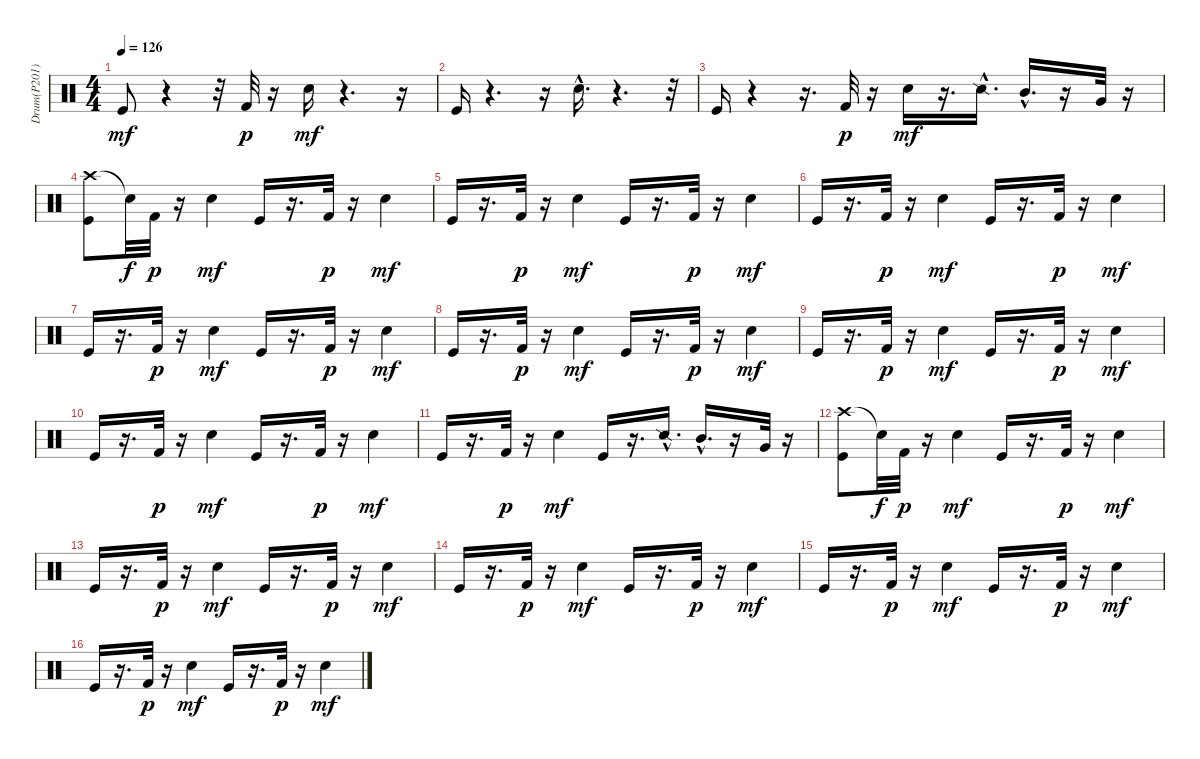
\track ("Drum(P201)" "Drum(P201)") {instrument percussion}
\staff {score}
\articulation defaults
\ts (4 4)
\tempo 126
\clef neutral
\ks c "Kick (hit)".8{dy mf}
r.4 r.32 "Kick (hit) 2".32{dy p} r.16 "Electric Snare (hit)".16{dy mf} r.4{d} r.16 |
"Kick (hit)".16 r.4{d} r.16 "Electric Snare (hit)"{hac}.16{d} r.4{d} r.32 |
"Kick (hit)".16 r.4 r.16{d} "Kick (hit) 2".32{dy p} r.16 "Electric Snare (hit)".16{dy mf} r.16{d} "Snare (side stick) 2"{hac}.16{d} "Mid Tom (hit)"{hac}.16{d} r.16 "Very Low Tom (hit)".32 r.16 |
("Crash high (hit)" "Kick (hit)").8 "Snare (hit)"{t}.32{dy f} "Kick (hit) 2".32{dy p} r.16 "Snare (hit) 2".4{dy mf} "Kick (hit)".16 r.16{d} "Kick (hit) 2".32{dy p} r.16 "Snare (hit) 2".4{dy mf} |
"Kick (hit)".16 r.16{d} "Kick (hit) 2".32{dy p} r.16 "Snare (hit) 2".4{dy mf} "Kick (hit)".16 r.16{d} "Kick (hit) 2".32{dy p} r.16 "Snare (hit) 2".4{dy mf} |
"Kick (hit)".16 r.16{d} "Kick (hit) 2".32{dy p} r.16 "Snare (hit) 2".4{dy mf} "Kick (hit)".16 r.16{d} "Kick (hit) 2".32{dy p} r.16 "Snare (hit) 2".4{dy mf} |
"Kick (hit)".16 r.16{d} "Kick (hit) 2".32{dy p} r.16 "Snare (hit) 2".4{dy mf} "Kick (hit)".16 r.16{d} "Kick (hit) 2".32{dy p} r.16 "Snare (hit) 2".4{dy mf} |
"Kick (hit)".16 r.16{d} "Kick (hit) 2".32{dy p} r.16 "Snare (hit) 2".4{dy mf} "Kick (hit)".16 r.16{d} "Kick (hit) 2".32{dy p} r.16 "Snare (hit) 2".4{dy mf} |
"Kick (hit)".16 r.16{d} "Kick (hit) 2".32{dy p} r.16 "Snare (hit) 2".4{dy mf} "Kick (hit)".16 r.16{d} "Kick (hit) 2".32{dy p} r.16 "Snare (hit) 2".4{dy mf} |
"Kick (hit)".16 r.16{d} "Kick (hit) 2".32{dy p} r.16 "Snare (hit) 2".4{dy mf} "Kick (hit)".16 r.16{d} "Kick (hit) 2".32{dy p} r.16 "Snare (hit) 2".4{dy mf} |
"Kick (hit)".16 r.16{d} "Kick (hit) 2".32{dy p} r.16 "Snare (hit) 2".4{dy mf} "Kick (hit)".16 r.16{d} "Snare (side stick) 2"{hac}.16{d} "Mid Tom (hit)"{hac}.16{d} r.16 "Very Low Tom (hit)".32 r.16 |
("Crash high (hit)" "Kick (hit)").8 "Snare (hit)"{t}.32{dy f} "Kick (hit) 2".32{dy p} r.16 "Snare (hit) 2".4{dy mf} "Kick (hit)".16 r.16{d} "Kick (hit) 2".32{dy p} r.16 "Snare (hit) 2".4{dy mf} |
"Kick (hit)".16 r.16{d} "Kick (hit) 2".32{dy p} r.16 "Snare (hit) 2".4{dy mf} "Kick (hit)".16 r.16{d} "Kick (hit) 2".32{dy p} r.16 "Snare (hit) 2".4{dy mf} |
"Kick (hit)".16 r.16{d} "Kick (hit) 2".32{dy p} r.16 "Snare (hit) 2".4{dy mf} "Kick (hit)".16 r.16{d} "Kick (hit) 2".32{dy p} r.16 "Snare (hit) 2".4{dy mf} |
"Kick (hit)".16 r.16{d} "Kick (hit) 2".32{dy p} r.16 "Snare (hit) 2".4{dy mf} "Kick (hit)".16 r.16{d} "Kick (hit) 2".32{dy p} r.16 "Snare (hit) 2".4{dy mf} |
"Kick (hit)".16 r.16{d} "Kick (hit) 2".32{dy p} r.16 "Snare (hit) 2".4{dy mf} "Kick (hit)".16 r.16{d} "Kick (hit) 2".32{dy p} r.16 "Snare (hit) 2".4{dy mf}
